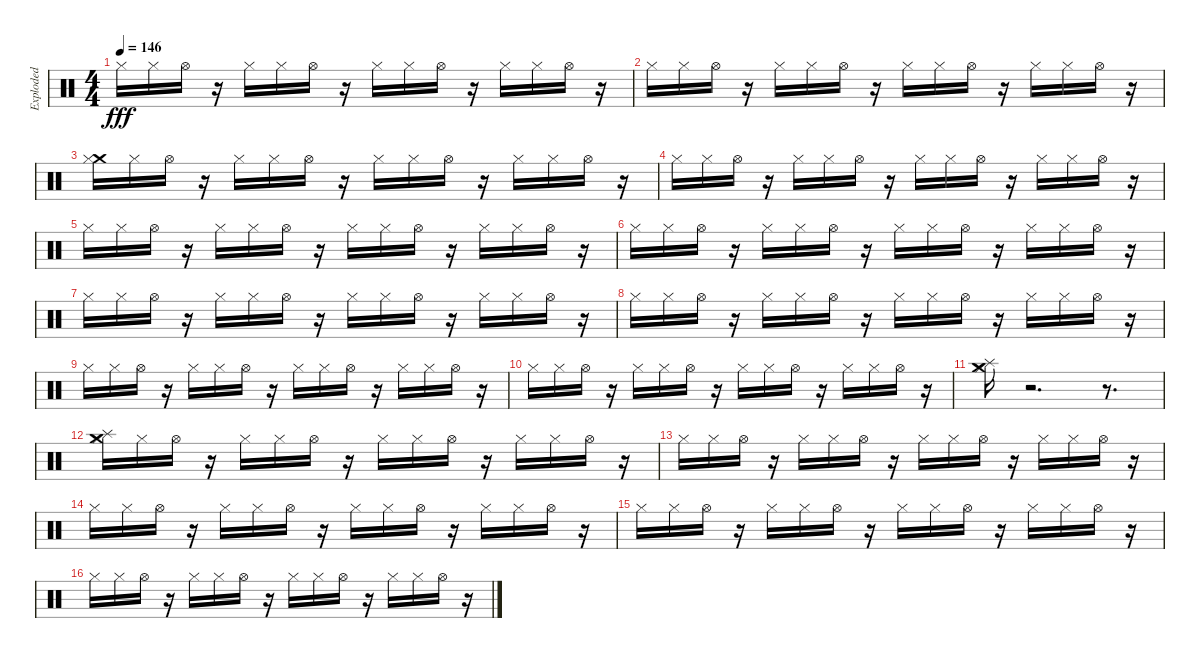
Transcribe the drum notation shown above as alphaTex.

\track ("Exploded" "Exploded") {instrument percussion}
\staff {score}
\articulation defaults
\ts (4 4)
\tempo 146
\clef neutral
\ks c "Hi-Hat (closed)".16{dy fff} "Hi-Hat (closed)".16 "Hi-Hat (open)".16
r.16 "Hi-Hat (closed)".16 "Hi-Hat (closed)".16 "Hi-Hat (open)".16 r.16 "Hi-Hat (closed)".16 "Hi-Hat (closed)".16 "Hi-Hat (open)".16 r.16 "Hi-Hat (closed)".16 "Hi-Hat (closed)".16 "Hi-Hat (open)".16 r.16 |
"Hi-Hat (closed)".16 "Hi-Hat (closed)".16 "Hi-Hat (open)".16 r.16 "Hi-Hat (closed)".16 "Hi-Hat (closed)".16 "Hi-Hat (open)".16 r.16 "Hi-Hat (closed)".16 "Hi-Hat (closed)".16 "Hi-Hat (open)".16 r.16 "Hi-Hat (closed)".16 "Hi-Hat (closed)".16 "Hi-Hat (open)".16 r.16 |
("Crash medium (hit)" "Hi-Hat (closed)").16 "Hi-Hat (closed)".16 "Hi-Hat (open)".16 r.16 "Hi-Hat (closed)".16 "Hi-Hat (closed)".16 "Hi-Hat (open)".16 r.16 "Hi-Hat (closed)".16 "Hi-Hat (closed)".16 "Hi-Hat (open)".16 r.16 "Hi-Hat (closed)".16 "Hi-Hat (closed)".16 "Hi-Hat (open)".16 r.16 |
"Hi-Hat (closed)".16 "Hi-Hat (closed)".16 "Hi-Hat (open)".16 r.16 "Hi-Hat (closed)".16 "Hi-Hat (closed)".16 "Hi-Hat (open)".16 r.16 "Hi-Hat (closed)".16 "Hi-Hat (closed)".16 "Hi-Hat (open)".16 r.16 "Hi-Hat (closed)".16 "Hi-Hat (closed)".16 "Hi-Hat (open)".16 r.16 |
"Hi-Hat (closed)".16 "Hi-Hat (closed)".16 "Hi-Hat (open)".16 r.16 "Hi-Hat (closed)".16 "Hi-Hat (closed)".16 "Hi-Hat (open)".16 r.16 "Hi-Hat (closed)".16 "Hi-Hat (closed)".16 "Hi-Hat (open)".16 r.16 "Hi-Hat (closed)".16 "Hi-Hat (closed)".16 "Hi-Hat (open)".16 r.16 |
"Hi-Hat (closed)".16 "Hi-Hat (closed)".16 "Hi-Hat (open)".16 r.16 "Hi-Hat (closed)".16 "Hi-Hat (closed)".16 "Hi-Hat (open)".16 r.16 "Hi-Hat (closed)".16 "Hi-Hat (closed)".16 "Hi-Hat (open)".16 r.16 "Hi-Hat (closed)".16 "Hi-Hat (closed)".16 "Hi-Hat (open)".16 r.16 |
"Hi-Hat (closed)".16 "Hi-Hat (closed)".16 "Hi-Hat (open)".16 r.16 "Hi-Hat (closed)".16 "Hi-Hat (closed)".16 "Hi-Hat (open)".16 r.16 "Hi-Hat (closed)".16 "Hi-Hat (closed)".16 "Hi-Hat (open)".16 r.16 "Hi-Hat (closed)".16 "Hi-Hat (closed)".16 "Hi-Hat (open)".16 r.16 |
"Hi-Hat (closed)".16 "Hi-Hat (closed)".16 "Hi-Hat (open)".16 r.16 "Hi-Hat (closed)".16 "Hi-Hat (closed)".16 "Hi-Hat (open)".16 r.16 "Hi-Hat (closed)".16 "Hi-Hat (closed)".16 "Hi-Hat (open)".16 r.16 "Hi-Hat (closed)".16 "Hi-Hat (closed)".16 "Hi-Hat (open)".16 r.16 |
"Hi-Hat (closed)".16 "Hi-Hat (closed)".16 "Hi-Hat (open)".16 r.16 "Hi-Hat (closed)".16 "Hi-Hat (closed)".16 "Hi-Hat (open)".16 r.16 "Hi-Hat (closed)".16 "Hi-Hat (closed)".16 "Hi-Hat (open)".16 r.16 "Hi-Hat (closed)".16 "Hi-Hat (closed)".16 "Hi-Hat (open)".16 r.16 |
"Hi-Hat (closed)".16 "Hi-Hat (closed)".16 "Hi-Hat (open)".16 r.16 "Hi-Hat (closed)".16 "Hi-Hat (closed)".16 "Hi-Hat (open)".16 r.16 "Hi-Hat (closed)".16 "Hi-Hat (closed)".16 "Hi-Hat (open)".16 r.16 "Hi-Hat (closed)".16 "Hi-Hat (closed)".16 "Hi-Hat (open)".16 r.16 |
("Crash medium (hit)" "Splash (hit)" "Hi-Hat (closed)").16 r.2{d} r.8{d} |
("Splash (hit)" "Crash medium (hit)" "Hi-Hat (closed)").16 "Hi-Hat (closed)".16 "Hi-Hat (open)".16 r.16 "Hi-Hat (closed)".16 "Hi-Hat (closed)".16 "Hi-Hat (open)".16 r.16 "Hi-Hat (closed)".16 "Hi-Hat (closed)".16 "Hi-Hat (open)".16 r.16 "Hi-Hat (closed)".16 "Hi-Hat (closed)".16 "Hi-Hat (open)".16 r.16 |
"Hi-Hat (closed)".16 "Hi-Hat (closed)".16 "Hi-Hat (open)".16 r.16 "Hi-Hat (closed)".16 "Hi-Hat (closed)".16 "Hi-Hat (open)".16 r.16 "Hi-Hat (closed)".16 "Hi-Hat (closed)".16 "Hi-Hat (open)".16 r.16 "Hi-Hat (closed)".16 "Hi-Hat (closed)".16 "Hi-Hat (open)".16 r.16 |
"Hi-Hat (closed)".16 "Hi-Hat (closed)".16 "Hi-Hat (open)".16 r.16 "Hi-Hat (closed)".16 "Hi-Hat (closed)".16 "Hi-Hat (open)".16 r.16 "Hi-Hat (closed)".16 "Hi-Hat (closed)".16 "Hi-Hat (open)".16 r.16 "Hi-Hat (closed)".16 "Hi-Hat (closed)".16 "Hi-Hat (open)".16 r.16 |
"Hi-Hat (closed)".16 "Hi-Hat (closed)".16 "Hi-Hat (open)".16 r.16 "Hi-Hat (closed)".16 "Hi-Hat (closed)".16 "Hi-Hat (open)".16 r.16 "Hi-Hat (closed)".16 "Hi-Hat (closed)".16 "Hi-Hat (open)".16 r.16 "Hi-Hat (closed)".16 "Hi-Hat (closed)".16 "Hi-Hat (open)".16 r.16 |
"Hi-Hat (closed)".16 "Hi-Hat (closed)".16 "Hi-Hat (open)".16 r.16 "Hi-Hat (closed)".16 "Hi-Hat (closed)".16 "Hi-Hat (open)".16 r.16 "Hi-Hat (closed)".16 "Hi-Hat (closed)".16 "Hi-Hat (open)".16 r.16 "Hi-Hat (closed)".16 "Hi-Hat (closed)".16 "Hi-Hat (open)".16 r.16
